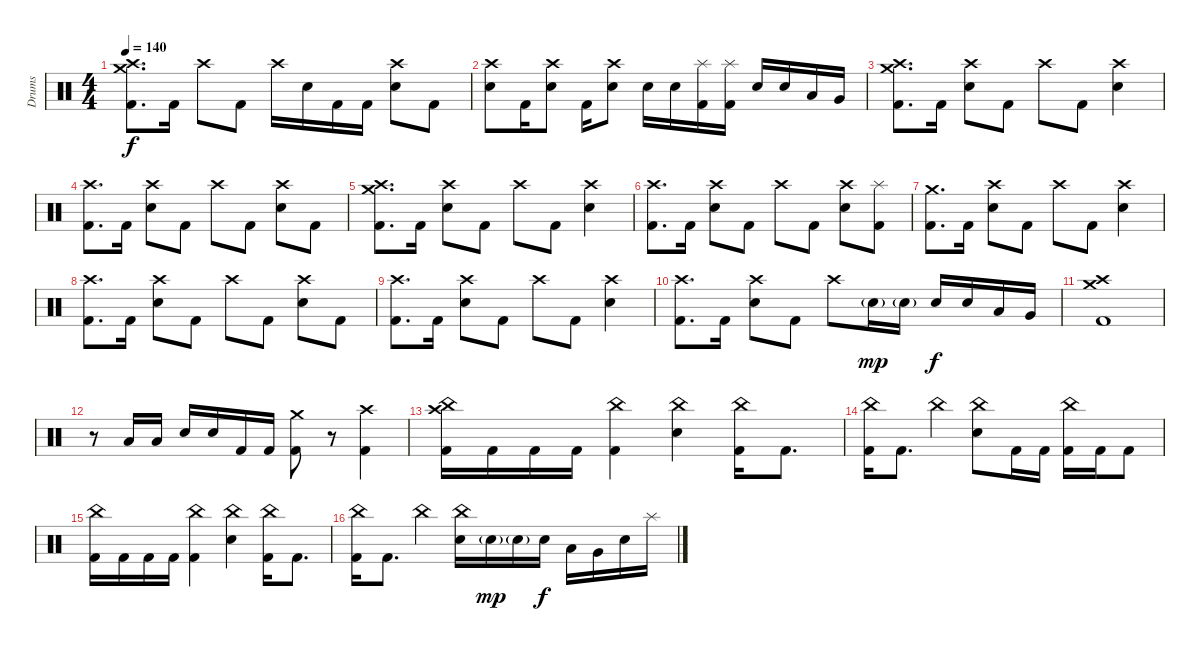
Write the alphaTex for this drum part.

\track ("Drums" "Drums") {instrument percussion}
\staff {score}
\articulation defaults
\ts (4 4)
\tempo 140
\clef neutral
\ks c
("Crash medium (hit)" "Crash high (hit)" "Kick (hit) 2").8{d dy f} "Kick (hit) 2".16 "Crash high (hit)".8 "Kick (hit) 2".8 "Crash high (hit)".16 "Electric Snare (hit)".16 "Kick (hit) 2".16 "Kick (hit) 2".16 ("Crash high (hit)" "Electric Snare (hit)").8 "Kick (hit) 2".8 |
("Crash high (hit)" "Electric Snare (hit)").8 "Kick (hit) 2".16 ("Crash high (hit)" "Electric Snare (hit)").8 "Kick (hit) 2".16 ("Crash high (hit)" "Electric Snare (hit)").8 "Electric Snare (hit)".16 "Electric Snare (hit)".16 ("Splash (hit)" "Kick (hit) 2").16 ("Splash (hit)" "Kick (hit) 2").16 "Electric Snare (hit)".16 "Electric Snare (hit)".16 "Low Tom (hit)".16 "Very Low Tom (hit)".16 |
("Crash medium (hit)" "Crash high (hit)" "Kick (hit) 2").8{d} "Kick (hit) 2".16 ("Crash high (hit)" "Electric Snare (hit)").8 "Kick (hit) 2".8 "Crash high (hit)".8 "Kick (hit) 2".8 ("Crash high (hit)" "Electric Snare (hit)").4 |
("Crash high (hit)" "Kick (hit) 2").8{d} "Kick (hit) 2".16 ("Crash high (hit)" "Electric Snare (hit)").8 "Kick (hit) 2".8 "Crash high (hit)".8 "Kick (hit) 2".8 ("Crash high (hit)" "Electric Snare (hit)").8 "Kick (hit) 2".8 |
("Crash medium (hit)" "Crash high (hit)" "Kick (hit) 2").8{d} "Kick (hit) 2".16 ("Crash high (hit)" "Electric Snare (hit)").8 "Kick (hit) 2".8 "Crash high (hit)".8 "Kick (hit) 2".8 ("Crash high (hit)" "Electric Snare (hit)").4 |
("Crash high (hit)" "Kick (hit) 2").8{d} "Kick (hit) 2".16 ("Crash high (hit)" "Electric Snare (hit)").8 "Kick (hit) 2".8 "Crash high (hit)".8 "Kick (hit) 2".8 ("Crash high (hit)" "Electric Snare (hit)").8 ("Splash (hit)" "Kick (hit) 2").8 |
("Crash medium (hit)" "Kick (hit) 2").8{d} "Kick (hit) 2".16 ("Crash high (hit)" "Electric Snare (hit)").8 "Kick (hit) 2".8 "Crash high (hit)".8 "Kick (hit) 2".8 ("Crash high (hit)" "Electric Snare (hit)").4 |
("Crash high (hit)" "Kick (hit) 2").8{d} "Kick (hit) 2".16 ("Crash high (hit)" "Electric Snare (hit)").8 "Kick (hit) 2".8 "Crash high (hit)".8 "Kick (hit) 2".8 ("Crash high (hit)" "Electric Snare (hit)").8 "Kick (hit) 2".8 |
("Crash high (hit)" "Kick (hit) 2").8{d} "Kick (hit) 2".16 ("Crash high (hit)" "Electric Snare (hit)").8 "Kick (hit) 2".8 "Crash high (hit)".8 "Kick (hit) 2".8 ("Crash high (hit)" "Electric Snare (hit)").4 |
("Crash high (hit)" "Kick (hit) 2").8{d} "Kick (hit) 2".16 ("Crash high (hit)" "Electric Snare (hit)").8 "Kick (hit) 2".8 "Crash high (hit)".8 "Electric Snare (hit)"{g}.16{dy mp} "Electric Snare (hit)"{g}.16 "Electric Snare (hit)".16{dy f} "Electric Snare (hit)".16 "Low Tom (hit)".16 "Very Low Tom (hit)".16 |
("Crash medium (hit)" "Crash high (hit)" "Kick (hit) 2").1 |
r.8 "Low Tom (hit)".16 "Low Tom (hit)".16 "Electric Snare (hit)".16 "Electric Snare (hit)".16 "Kick (hit) 2".16 "Kick (hit) 2".16 ("Crash medium (hit)" "Kick (hit) 2").8 r.8{volume 0} ("Crash high (hit)" "Kick (hit) 2").4{volume 16} |
("China (hit)" "Crash high (hit)" "Kick (hit) 2").16 "Kick (hit) 2".16 "Kick (hit) 2".16 "Kick (hit) 2".16 ("China (hit)" "Kick (hit) 2").4 ("China (hit)" "Electric Snare (hit)").4 ("China (hit)" "Kick (hit) 2").16 "Kick (hit) 2".8{d} |
("China (hit)" "Kick (hit) 2").16 "Kick (hit) 2".8{d} "China (hit)".4 ("China (hit)" "Electric Snare (hit)").8 "Kick (hit) 2".16 "Kick (hit) 2".16 ("China (hit)" "Kick (hit) 2").16 "Kick (hit) 2".16 "Kick (hit) 2".8 |
("China (hit)" "Kick (hit) 2").16 "Kick (hit) 2".16 "Kick (hit) 2".16 "Kick (hit) 2".16 ("China (hit)" "Kick (hit) 2").4 ("China (hit)" "Electric Snare (hit)").4 ("China (hit)" "Kick (hit) 2").16 "Kick (hit) 2".8{d} |
("China (hit)" "Kick (hit) 2").16 "Kick (hit) 2".8{d} "China (hit)".4 ("China (hit)" "Electric Snare (hit)").16 "Electric Snare (hit)"{g}.16{dy mp} "Electric Snare (hit)"{g}.16 "Electric Snare (hit)".16{dy f} "Low Tom (hit)".16 "Very Low Tom (hit)".16 "Electric Snare (hit)".16 "Splash (hit)".16
